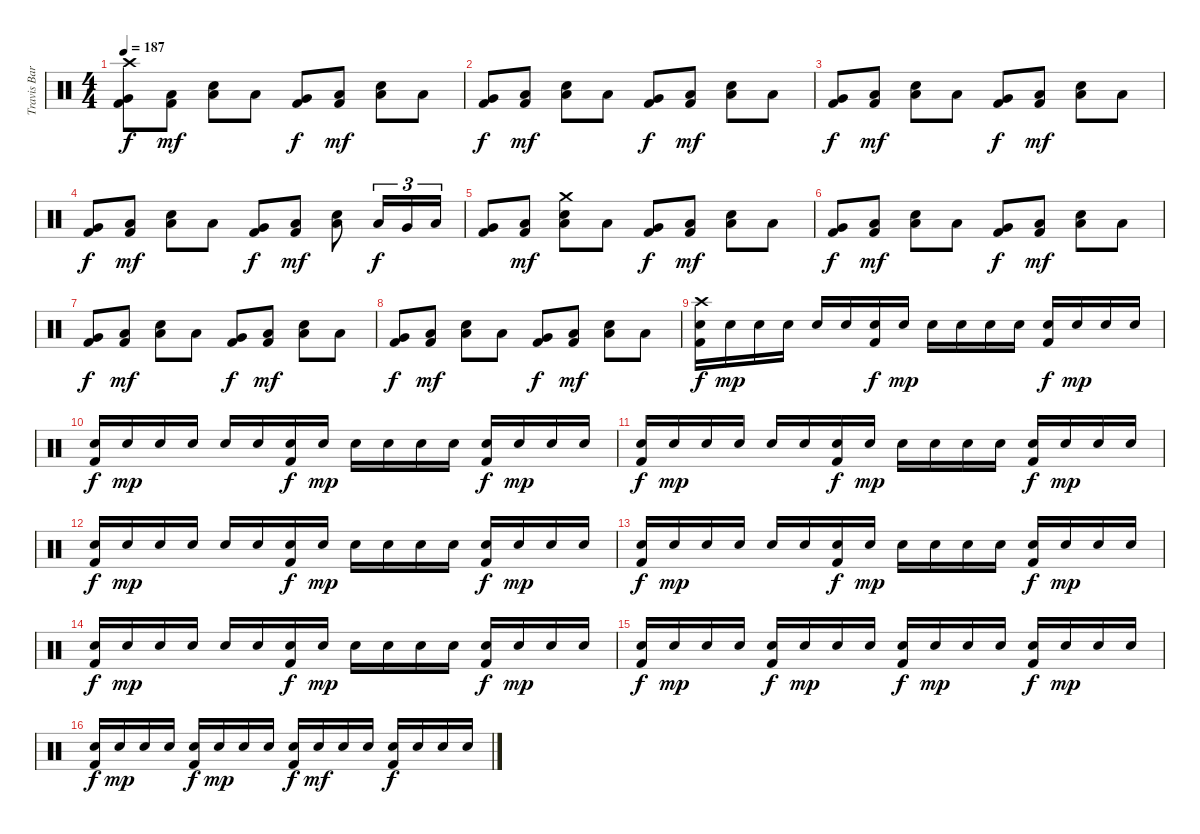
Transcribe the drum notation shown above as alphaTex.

\track ("Travis Barker Drums" "Travis Bar") {instrument percussion}
\staff {score}
\articulation defaults
\ts (4 4)
\tempo 187
\clef neutral
\ks c
("Crash high (hit)" "Very Low Tom (hit)" "Kick (hit) 2").8{dy f} ("Low Floor Tom (hit)" "Kick (hit) 2").8{dy mf} ("Low Floor Tom (hit)" "Electric Snare (hit)").8 "Low Floor Tom (hit)".8 ("Very Low Tom (hit)" "Kick (hit) 2").8{dy f} ("Low Floor Tom (hit)" "Kick (hit) 2").8{dy mf} ("Low Floor Tom (hit)" "Electric Snare (hit)").8 "Low Floor Tom (hit)".8 |
("Very Low Tom (hit)" "Kick (hit) 2").8{dy f} ("Low Floor Tom (hit)" "Kick (hit) 2").8{dy mf} ("Low Floor Tom (hit)" "Electric Snare (hit)").8 "Low Floor Tom (hit)".8 ("Very Low Tom (hit)" "Kick (hit) 2").8{dy f} ("Low Floor Tom (hit)" "Kick (hit) 2").8{dy mf} ("Low Floor Tom (hit)" "Electric Snare (hit)").8 "Low Floor Tom (hit)".8 |
("Very Low Tom (hit)" "Kick (hit) 2").8{dy f} ("Low Floor Tom (hit)" "Kick (hit) 2").8{dy mf} ("Low Floor Tom (hit)" "Electric Snare (hit)").8 "Low Floor Tom (hit)".8 ("Very Low Tom (hit)" "Kick (hit) 2").8{dy f} ("Low Floor Tom (hit)" "Kick (hit) 2").8{dy mf} ("Low Floor Tom (hit)" "Electric Snare (hit)").8 "Low Floor Tom (hit)".8 |
("Very Low Tom (hit)" "Kick (hit) 2").8{dy f} ("Low Floor Tom (hit)" "Kick (hit) 2").8{dy mf} ("Low Floor Tom (hit)" "Electric Snare (hit)").8 "Low Floor Tom (hit)".8 ("Very Low Tom (hit)" "Kick (hit) 2").8{dy f} ("Low Floor Tom (hit)" "Kick (hit) 2").8{dy mf} ("Low Floor Tom (hit)" "Electric Snare (hit)").8 "Low Tom (hit)".16{tu (3 2) dy f} "Very Low Tom (hit)".16{tu (3 2)} "Low Floor Tom (hit)".16{tu (3 2)} |
("Very Low Tom (hit)" "Kick (hit) 2").8 ("Low Floor Tom (hit)" "Kick (hit) 2").8{dy mf} ("Crash medium (hit)" "Low Floor Tom (hit)" "Electric Snare (hit)").8 "Low Floor Tom (hit)".8 ("Very Low Tom (hit)" "Kick (hit) 2").8{dy f} ("Low Floor Tom (hit)" "Kick (hit) 2").8{dy mf} ("Low Floor Tom (hit)" "Electric Snare (hit)").8 "Low Floor Tom (hit)".8 |
("Very Low Tom (hit)" "Kick (hit) 2").8{dy f} ("Low Floor Tom (hit)" "Kick (hit) 2").8{dy mf} ("Low Floor Tom (hit)" "Electric Snare (hit)").8 "Low Floor Tom (hit)".8 ("Very Low Tom (hit)" "Kick (hit) 2").8{dy f} ("Low Floor Tom (hit)" "Kick (hit) 2").8{dy mf} ("Low Floor Tom (hit)" "Electric Snare (hit)").8 "Low Floor Tom (hit)".8 |
("Very Low Tom (hit)" "Kick (hit) 2").8{dy f} ("Low Floor Tom (hit)" "Kick (hit) 2").8{dy mf} ("Low Floor Tom (hit)" "Electric Snare (hit)").8 "Low Floor Tom (hit)".8 ("Very Low Tom (hit)" "Kick (hit) 2").8{dy f} ("Low Floor Tom (hit)" "Kick (hit) 2").8{dy mf} ("Low Floor Tom (hit)" "Electric Snare (hit)").8 "Low Floor Tom (hit)".8 |
("Very Low Tom (hit)" "Kick (hit) 2").8{dy f} ("Low Floor Tom (hit)" "Kick (hit) 2").8{dy mf} ("Low Floor Tom (hit)" "Electric Snare (hit)").8 "Low Floor Tom (hit)".8 ("Very Low Tom (hit)" "Kick (hit) 2").8{dy f} ("Low Floor Tom (hit)" "Kick (hit) 2").8{dy mf} ("Low Floor Tom (hit)" "Electric Snare (hit)").8 "Low Floor Tom (hit)".8 |
("Crash high (hit)" "Electric Snare (hit)" "Kick (hit) 2").16{dy f} "Electric Snare (hit)".16{dy mp} "Electric Snare (hit)".16 "Electric Snare (hit)".16 "Electric Snare (hit)".16 "Electric Snare (hit)".16 ("Electric Snare (hit)" "Kick (hit) 2").16{dy f} "Electric Snare (hit)".16{dy mp} "Electric Snare (hit)".16 "Electric Snare (hit)".16 "Electric Snare (hit)".16 "Electric Snare (hit)".16 ("Electric Snare (hit)" "Kick (hit) 2").16{dy f} "Electric Snare (hit)".16{dy mp} "Electric Snare (hit)".16 "Electric Snare (hit)".16 |
("Electric Snare (hit)" "Kick (hit) 2").16{dy f} "Electric Snare (hit)".16{dy mp} "Electric Snare (hit)".16 "Electric Snare (hit)".16 "Electric Snare (hit)".16 "Electric Snare (hit)".16 ("Electric Snare (hit)" "Kick (hit) 2").16{dy f} "Electric Snare (hit)".16{dy mp} "Electric Snare (hit)".16 "Electric Snare (hit)".16 "Electric Snare (hit)".16 "Electric Snare (hit)".16 ("Electric Snare (hit)" "Kick (hit) 2").16{dy f} "Electric Snare (hit)".16{dy mp} "Electric Snare (hit)".16 "Electric Snare (hit)".16 |
("Electric Snare (hit)" "Kick (hit) 2").16{dy f} "Electric Snare (hit)".16{dy mp} "Electric Snare (hit)".16 "Electric Snare (hit)".16 "Electric Snare (hit)".16 "Electric Snare (hit)".16 ("Electric Snare (hit)" "Kick (hit) 2").16{dy f} "Electric Snare (hit)".16{dy mp} "Electric Snare (hit)".16 "Electric Snare (hit)".16 "Electric Snare (hit)".16 "Electric Snare (hit)".16 ("Electric Snare (hit)" "Kick (hit) 2").16{dy f} "Electric Snare (hit)".16{dy mp} "Electric Snare (hit)".16 "Electric Snare (hit)".16 |
("Electric Snare (hit)" "Kick (hit) 2").16{dy f} "Electric Snare (hit)".16{dy mp} "Electric Snare (hit)".16 "Electric Snare (hit)".16 "Electric Snare (hit)".16 "Electric Snare (hit)".16 ("Electric Snare (hit)" "Kick (hit) 2").16{dy f} "Electric Snare (hit)".16{dy mp} "Electric Snare (hit)".16 "Electric Snare (hit)".16 "Electric Snare (hit)".16 "Electric Snare (hit)".16 ("Electric Snare (hit)" "Kick (hit) 2").16{dy f} "Electric Snare (hit)".16{dy mp} "Electric Snare (hit)".16 "Electric Snare (hit)".16 |
("Electric Snare (hit)" "Kick (hit) 2").16{dy f} "Electric Snare (hit)".16{dy mp} "Electric Snare (hit)".16 "Electric Snare (hit)".16 "Electric Snare (hit)".16 "Electric Snare (hit)".16 ("Electric Snare (hit)" "Kick (hit) 2").16{dy f} "Electric Snare (hit)".16{dy mp} "Electric Snare (hit)".16 "Electric Snare (hit)".16 "Electric Snare (hit)".16 "Electric Snare (hit)".16 ("Electric Snare (hit)" "Kick (hit) 2").16{dy f} "Electric Snare (hit)".16{dy mp} "Electric Snare (hit)".16 "Electric Snare (hit)".16 |
("Electric Snare (hit)" "Kick (hit) 2").16{dy f} "Electric Snare (hit)".16{dy mp} "Electric Snare (hit)".16 "Electric Snare (hit)".16 "Electric Snare (hit)".16 "Electric Snare (hit)".16 ("Electric Snare (hit)" "Kick (hit) 2").16{dy f} "Electric Snare (hit)".16{dy mp} "Electric Snare (hit)".16 "Electric Snare (hit)".16 "Electric Snare (hit)".16 "Electric Snare (hit)".16 ("Electric Snare (hit)" "Kick (hit) 2").16{dy f} "Electric Snare (hit)".16{dy mp} "Electric Snare (hit)".16 "Electric Snare (hit)".16 |
("Electric Snare (hit)" "Kick (hit) 2").16{dy f} "Electric Snare (hit)".16{dy mp} "Electric Snare (hit)".16 "Electric Snare (hit)".16 ("Electric Snare (hit)" "Kick (hit) 2").16{dy f} "Electric Snare (hit)".16{dy mp} "Electric Snare (hit)".16 "Electric Snare (hit)".16 ("Electric Snare (hit)" "Kick (hit) 2").16{dy f} "Electric Snare (hit)".16{dy mp} "Electric Snare (hit)".16 "Electric Snare (hit)".16 ("Electric Snare (hit)" "Kick (hit) 2").16{dy f} "Electric Snare (hit)".16{dy mp} "Electric Snare (hit)".16 "Electric Snare (hit)".16 |
("Electric Snare (hit)" "Kick (hit) 2").16{dy f} "Electric Snare (hit)".16{dy mp} "Electric Snare (hit)".16 "Electric Snare (hit)".16 ("Electric Snare (hit)" "Kick (hit) 2").16{dy f} "Electric Snare (hit)".16{dy mp} "Electric Snare (hit)".16 "Electric Snare (hit)".16 ("Electric Snare (hit)" "Kick (hit) 2").16{dy f} "Electric Snare (hit)".16{dy mf} "Electric Snare (hit)".16 "Electric Snare (hit)".16 ("Electric Snare (hit)" "Kick (hit) 2").16{dy f} "Electric Snare (hit)".16 "Electric Snare (hit)".16 "Electric Snare (hit)".16
